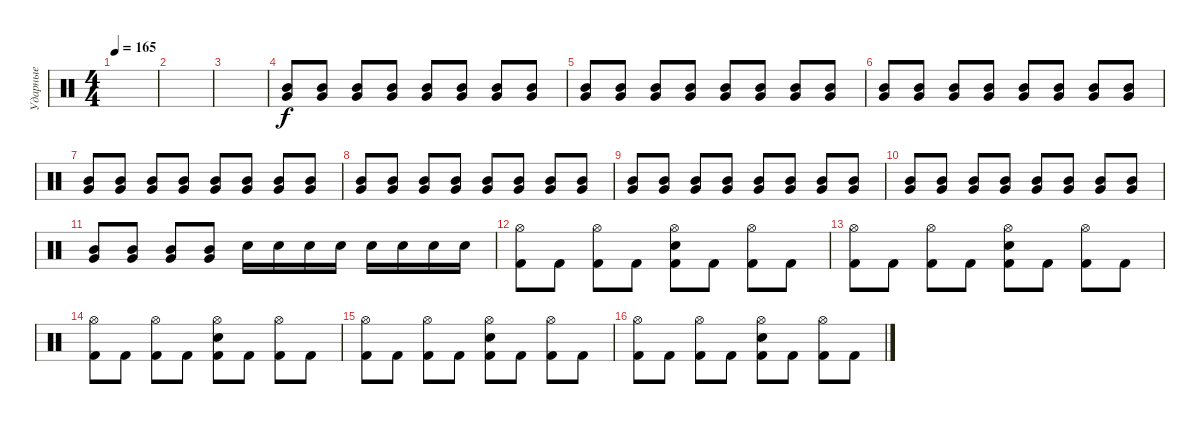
\track ("Ударные" "Ударные") {instrument percussion}
\staff {score}
\articulation defaults
\ts (4 4)
\tempo 165
\clef neutral
\ks c
|
|
|
("Mid Tom (hit)" "Very Low Tom (hit)").8{volume 0} ("Mid Tom (hit)" "Very Low Tom (hit)").8 ("Mid Tom (hit)" "Very Low Tom (hit)").8 ("Mid Tom (hit)" "Very Low Tom (hit)").8 ("Mid Tom (hit)" "Very Low Tom (hit)").8 ("Mid Tom (hit)" "Very Low Tom (hit)").8 ("Mid Tom (hit)" "Very Low Tom (hit)").8 ("Mid Tom (hit)" "Very Low Tom (hit)").8{volume 12} |
("Mid Tom (hit)" "Very Low Tom (hit)").8 ("Mid Tom (hit)" "Very Low Tom (hit)").8 ("Mid Tom (hit)" "Very Low Tom (hit)").8 ("Mid Tom (hit)" "Very Low Tom (hit)").8 ("Mid Tom (hit)" "Very Low Tom (hit)").8 ("Mid Tom (hit)" "Very Low Tom (hit)").8 ("Mid Tom (hit)" "Very Low Tom (hit)").8 ("Mid Tom (hit)" "Very Low Tom (hit)").8 |
("Mid Tom (hit)" "Very Low Tom (hit)").8 ("Mid Tom (hit)" "Very Low Tom (hit)").8 ("Mid Tom (hit)" "Very Low Tom (hit)").8 ("Mid Tom (hit)" "Very Low Tom (hit)").8 ("Mid Tom (hit)" "Very Low Tom (hit)").8 ("Mid Tom (hit)" "Very Low Tom (hit)").8 ("Mid Tom (hit)" "Very Low Tom (hit)").8 ("Mid Tom (hit)" "Very Low Tom (hit)").8 |
("Mid Tom (hit)" "Very Low Tom (hit)").8 ("Mid Tom (hit)" "Very Low Tom (hit)").8 ("Mid Tom (hit)" "Very Low Tom (hit)").8 ("Mid Tom (hit)" "Very Low Tom (hit)").8 ("Mid Tom (hit)" "Very Low Tom (hit)").8 ("Mid Tom (hit)" "Very Low Tom (hit)").8 ("Mid Tom (hit)" "Very Low Tom (hit)").8 ("Mid Tom (hit)" "Very Low Tom (hit)").8 |
("Mid Tom (hit)" "Very Low Tom (hit)").8 ("Mid Tom (hit)" "Very Low Tom (hit)").8 ("Mid Tom (hit)" "Very Low Tom (hit)").8 ("Mid Tom (hit)" "Very Low Tom (hit)").8 ("Mid Tom (hit)" "Very Low Tom (hit)").8 ("Mid Tom (hit)" "Very Low Tom (hit)").8 ("Mid Tom (hit)" "Very Low Tom (hit)").8 ("Mid Tom (hit)" "Very Low Tom (hit)").8 |
("Mid Tom (hit)" "Very Low Tom (hit)").8 ("Mid Tom (hit)" "Very Low Tom (hit)").8 ("Mid Tom (hit)" "Very Low Tom (hit)").8 ("Mid Tom (hit)" "Very Low Tom (hit)").8 ("Mid Tom (hit)" "Very Low Tom (hit)").8 ("Mid Tom (hit)" "Very Low Tom (hit)").8 ("Mid Tom (hit)" "Very Low Tom (hit)").8 ("Mid Tom (hit)" "Very Low Tom (hit)").8 |
("Mid Tom (hit)" "Very Low Tom (hit)").8 ("Mid Tom (hit)" "Very Low Tom (hit)").8 ("Mid Tom (hit)" "Very Low Tom (hit)").8 ("Mid Tom (hit)" "Very Low Tom (hit)").8 ("Mid Tom (hit)" "Very Low Tom (hit)").8 ("Mid Tom (hit)" "Very Low Tom (hit)").8 ("Mid Tom (hit)" "Very Low Tom (hit)").8 ("Mid Tom (hit)" "Very Low Tom (hit)").8 |
("Mid Tom (hit)" "Very Low Tom (hit)").8 ("Mid Tom (hit)" "Very Low Tom (hit)").8 ("Mid Tom (hit)" "Very Low Tom (hit)").8 ("Mid Tom (hit)" "Very Low Tom (hit)").8 "Snare (hit) 2".16 "Snare (hit) 2".16 "Snare (hit) 2".16 "Snare (hit) 2".16 "Snare (hit) 2".16 "Snare (hit) 2".16 "Snare (hit) 2".16 "Snare (hit) 2".16 |
("Kick (hit) 2" "Hi-Hat (open)").8 "Kick (hit) 2".8 ("Kick (hit) 2" "Hi-Hat (open)").8 "Kick (hit) 2".8 ("Kick (hit) 2" "Hi-Hat (open)" "Snare (hit) 2").8 "Kick (hit) 2".8 ("Kick (hit) 2" "Hi-Hat (open)").8 "Kick (hit) 2".8 |
("Kick (hit) 2" "Hi-Hat (open)").8 "Kick (hit) 2".8 ("Kick (hit) 2" "Hi-Hat (open)").8 "Kick (hit) 2".8 ("Kick (hit) 2" "Hi-Hat (open)" "Snare (hit) 2").8 "Kick (hit) 2".8 ("Kick (hit) 2" "Hi-Hat (open)").8 "Kick (hit) 2".8 |
("Kick (hit) 2" "Hi-Hat (open)").8 "Kick (hit) 2".8 ("Kick (hit) 2" "Hi-Hat (open)").8 "Kick (hit) 2".8 ("Kick (hit) 2" "Hi-Hat (open)" "Snare (hit) 2").8 "Kick (hit) 2".8 ("Kick (hit) 2" "Hi-Hat (open)").8 "Kick (hit) 2".8 |
("Kick (hit) 2" "Hi-Hat (open)").8 "Kick (hit) 2".8 ("Kick (hit) 2" "Hi-Hat (open)").8 "Kick (hit) 2".8 ("Kick (hit) 2" "Hi-Hat (open)" "Snare (hit) 2").8 "Kick (hit) 2".8 ("Kick (hit) 2" "Hi-Hat (open)").8 "Kick (hit) 2".8 |
("Kick (hit) 2" "Hi-Hat (open)").8 "Kick (hit) 2".8 ("Kick (hit) 2" "Hi-Hat (open)").8 "Kick (hit) 2".8 ("Kick (hit) 2" "Hi-Hat (open)" "Snare (hit) 2").8 "Kick (hit) 2".8 ("Kick (hit) 2" "Hi-Hat (open)").8 "Kick (hit) 2".8
